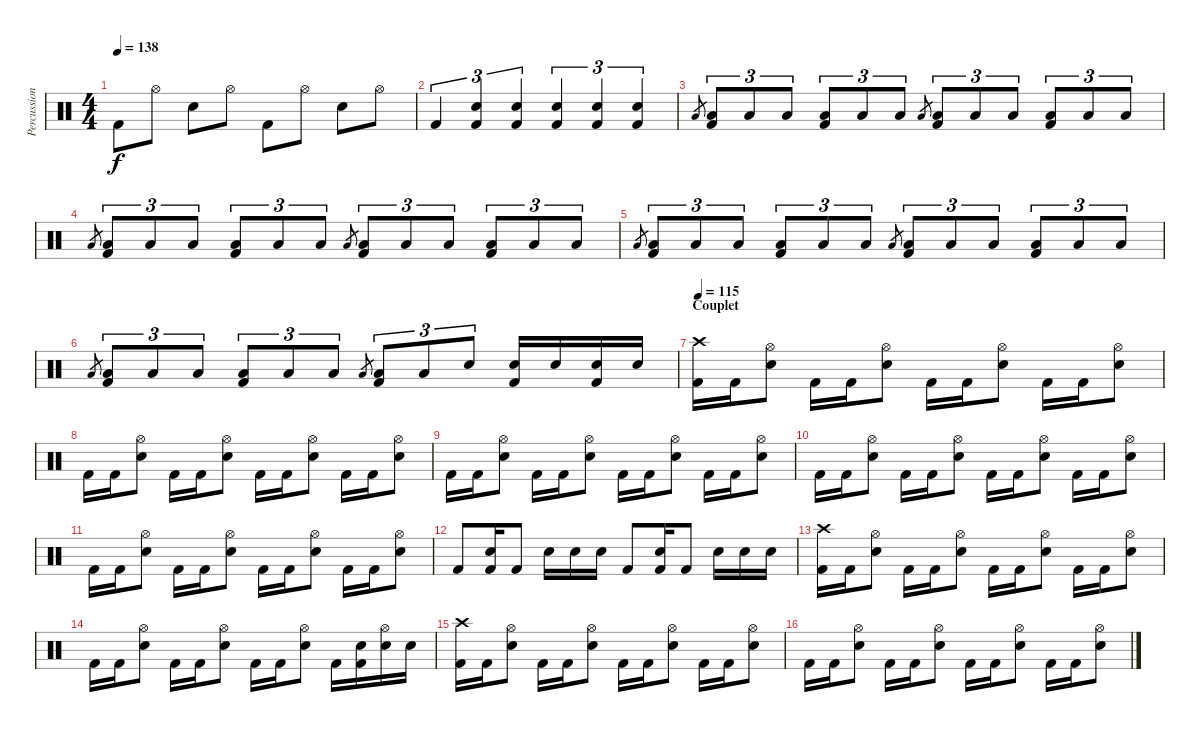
\track ("Percussions" "Percussion") {instrument percussion}
\staff {score}
\articulation defaults
\ts (4 4)
\tempo 138
\clef neutral
\ks c "Kick (hit) 2".8{dy f} "Hi-Hat (open)".8 "Snare (hit) 2".8 "Hi-Hat (open)".8 "Kick (hit) 2".8 "Hi-Hat (open)".8 "Snare (hit) 2".8 "Hi-Hat (open)".8
|
"Kick (hit) 2".4{tu (3 2)} ("Snare (hit) 2" "Kick (hit) 2").4{tu (3 2)} ("Snare (hit) 2" "Kick (hit) 2").4{tu (3 2)} ("Snare (hit) 2" "Kick (hit) 2").4{tu (3 2)} ("Snare (hit) 2" "Kick (hit) 2").4{tu (3 2)} ("Snare (hit) 2" "Kick (hit) 2").4{tu (3 2)} |
\section ("" "")
"Low Floor Tom (hit)".8{gr} ("Low Tom (hit)" "Kick (hit) 2").8{tu (3 2)} "Low Tom (hit)".8{tu (3 2)} "Low Tom (hit)".8{tu (3 2)} ("Low Floor Tom (hit)" "Kick (hit) 2").8{tu (3 2)} "Low Floor Tom (hit)".8{tu (3 2)} "Low Floor Tom (hit)".8{tu (3 2)} "Low Floor Tom (hit)".8{gr} ("Low Tom (hit)" "Kick (hit) 2").8{tu (3 2)} "Low Tom (hit)".8{tu (3 2)} "Low Tom (hit)".8{tu (3 2)} ("Low Floor Tom (hit)" "Kick (hit) 2").8{tu (3 2)} "Low Floor Tom (hit)".8{tu (3 2)} "Low Floor Tom (hit)".8{tu (3 2)} |
"Low Floor Tom (hit)".8{gr} ("Low Tom (hit)" "Kick (hit) 2").8{tu (3 2)} "Low Tom (hit)".8{tu (3 2)} "Low Tom (hit)".8{tu (3 2)} ("Low Floor Tom (hit)" "Kick (hit) 2").8{tu (3 2)} "Low Floor Tom (hit)".8{tu (3 2)} "Low Floor Tom (hit)".8{tu (3 2)} "Low Floor Tom (hit)".8{gr} ("Low Tom (hit)" "Kick (hit) 2").8{tu (3 2)} "Low Tom (hit)".8{tu (3 2)} "Low Tom (hit)".8{tu (3 2)} ("Low Floor Tom (hit)" "Kick (hit) 2").8{tu (3 2)} "Low Floor Tom (hit)".8{tu (3 2)} "Low Floor Tom (hit)".8{tu (3 2)} |
"Low Floor Tom (hit)".8{gr} ("Low Tom (hit)" "Kick (hit) 2").8{tu (3 2)} "Low Tom (hit)".8{tu (3 2)} "Low Tom (hit)".8{tu (3 2)} ("Low Floor Tom (hit)" "Kick (hit) 2").8{tu (3 2)} "Low Floor Tom (hit)".8{tu (3 2)} "Low Floor Tom (hit)".8{tu (3 2)} "Low Floor Tom (hit)".8{gr} ("Low Tom (hit)" "Kick (hit) 2").8{tu (3 2)} "Low Tom (hit)".8{tu (3 2)} "Low Tom (hit)".8{tu (3 2)} ("Low Floor Tom (hit)" "Kick (hit) 2").8{tu (3 2)} "Low Floor Tom (hit)".8{tu (3 2)} "Low Floor Tom (hit)".8{tu (3 2)} |
"Low Floor Tom (hit)".8{gr} ("Low Tom (hit)" "Kick (hit) 2").8{tu (3 2)} "Low Tom (hit)".8{tu (3 2)} "Low Tom (hit)".8{tu (3 2)} ("Low Floor Tom (hit)" "Kick (hit) 2").8{tu (3 2)} "Low Floor Tom (hit)".8{tu (3 2)} "Low Floor Tom (hit)".8{tu (3 2)} "Low Floor Tom (hit)".8{gr} ("Low Tom (hit)" "Kick (hit) 2").8{tu (3 2)} "Low Tom (hit)".8{tu (3 2)} "Snare (hit) 2".8{tu (3 2)} ("Snare (hit) 2" "Kick (hit) 2").16 "Snare (hit) 2".16 ("Snare (hit) 2" "Kick (hit) 2").16 "Snare (hit) 2".16 |
\section ("" "Couplet")
\tempo 115
("Crash high (hit)" "Kick (hit) 2").16 "Kick (hit) 2".16 ("Hi-Hat (open)" "Snare (hit) 2").8 "Kick (hit) 2".16 "Kick (hit) 2".16 ("Hi-Hat (open)" "Snare (hit) 2").8 "Kick (hit) 2".16 "Kick (hit) 2".16 ("Hi-Hat (open)" "Snare (hit) 2").8 "Kick (hit) 2".16 "Kick (hit) 2".16 ("Hi-Hat (open)" "Snare (hit) 2").8 |
"Kick (hit) 2".16 "Kick (hit) 2".16 ("Hi-Hat (open)" "Snare (hit) 2").8 "Kick (hit) 2".16 "Kick (hit) 2".16 ("Hi-Hat (open)" "Snare (hit) 2").8 "Kick (hit) 2".16 "Kick (hit) 2".16 ("Hi-Hat (open)" "Snare (hit) 2").8 "Kick (hit) 2".16 "Kick (hit) 2".16 ("Hi-Hat (open)" "Snare (hit) 2").8 |
"Kick (hit) 2".16 "Kick (hit) 2".16 ("Hi-Hat (open)" "Snare (hit) 2").8 "Kick (hit) 2".16 "Kick (hit) 2".16 ("Hi-Hat (open)" "Snare (hit) 2").8 "Kick (hit) 2".16 "Kick (hit) 2".16 ("Hi-Hat (open)" "Snare (hit) 2").8 "Kick (hit) 2".16 "Kick (hit) 2".16 ("Hi-Hat (open)" "Snare (hit) 2").8 |
"Kick (hit) 2".16 "Kick (hit) 2".16 ("Hi-Hat (open)" "Snare (hit) 2").8 "Kick (hit) 2".16 "Kick (hit) 2".16 ("Hi-Hat (open)" "Snare (hit) 2").8 "Kick (hit) 2".16 "Kick (hit) 2".16 ("Hi-Hat (open)" "Snare (hit) 2").8 "Kick (hit) 2".16 "Kick (hit) 2".16 ("Hi-Hat (open)" "Snare (hit) 2").8 |
"Kick (hit) 2".16 "Kick (hit) 2".16 ("Hi-Hat (open)" "Snare (hit) 2").8 "Kick (hit) 2".16 "Kick (hit) 2".16 ("Hi-Hat (open)" "Snare (hit) 2").8 "Kick (hit) 2".16 "Kick (hit) 2".16 ("Hi-Hat (open)" "Snare (hit) 2").8 "Kick (hit) 2".16 "Kick (hit) 2".16 ("Hi-Hat (open)" "Snare (hit) 2").8 |
"Kick (hit) 2".8 ("Snare (hit) 2" "Kick (hit) 2").16 "Kick (hit) 2".8 "Snare (hit) 2".16 "Snare (hit) 2".16 "Snare (hit) 2".16 "Kick (hit) 2".8 ("Snare (hit) 2" "Kick (hit) 2").16 "Kick (hit) 2".8 "Snare (hit) 2".16 "Snare (hit) 2".16 "Snare (hit) 2".16 |
("Crash high (hit)" "Kick (hit) 2").16 "Kick (hit) 2".16 ("Hi-Hat (open)" "Snare (hit) 2").8 "Kick (hit) 2".16 "Kick (hit) 2".16 ("Hi-Hat (open)" "Snare (hit) 2").8 "Kick (hit) 2".16 "Kick (hit) 2".16 ("Hi-Hat (open)" "Snare (hit) 2").8 "Kick (hit) 2".16 "Kick (hit) 2".16 ("Hi-Hat (open)" "Snare (hit) 2").8 |
"Kick (hit) 2".16 "Kick (hit) 2".16 ("Hi-Hat (open)" "Snare (hit) 2").8 "Kick (hit) 2".16 "Kick (hit) 2".16 ("Hi-Hat (open)" "Snare (hit) 2").8 "Kick (hit) 2".16 "Kick (hit) 2".16 ("Hi-Hat (open)" "Snare (hit) 2").8 "Kick (hit) 2".16 ("Snare (hit) 2" "Kick (hit) 2").16 ("Hi-Hat (open)" "Snare (hit) 2").16 "Snare (hit) 2".16 |
("Crash high (hit)" "Kick (hit) 2").16 "Kick (hit) 2".16 ("Hi-Hat (open)" "Snare (hit) 2").8 "Kick (hit) 2".16 "Kick (hit) 2".16 ("Hi-Hat (open)" "Snare (hit) 2").8 "Kick (hit) 2".16 "Kick (hit) 2".16 ("Hi-Hat (open)" "Snare (hit) 2").8 "Kick (hit) 2".16 "Kick (hit) 2".16 ("Hi-Hat (open)" "Snare (hit) 2").8 |
"Kick (hit) 2".16 "Kick (hit) 2".16 ("Hi-Hat (open)" "Snare (hit) 2").8 "Kick (hit) 2".16 "Kick (hit) 2".16 ("Hi-Hat (open)" "Snare (hit) 2").8 "Kick (hit) 2".16 "Kick (hit) 2".16 ("Hi-Hat (open)" "Snare (hit) 2").8 "Kick (hit) 2".16 "Kick (hit) 2".16 ("Hi-Hat (open)" "Snare (hit) 2").8
